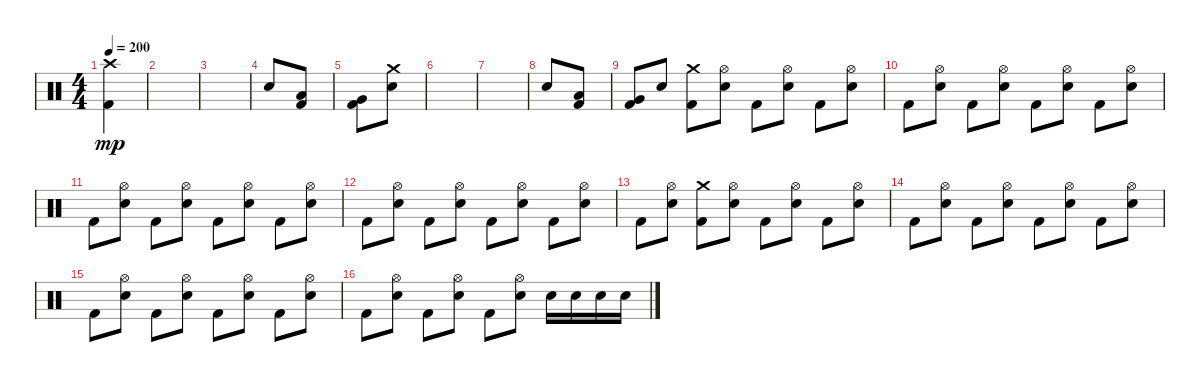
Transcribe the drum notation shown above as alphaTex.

\track "" {instrument percussion}
\staff {score}
\articulation defaults
\ts (4 4)
\tempo 200
\clef neutral
\ks c
("Kick (hit) 2" "Crash high (hit)").4{dy mp} |
|
|
"Electric Snare (hit)".8 ("Kick (hit) 2" "Low Tom (hit)").8 |
("Kick (hit) 2" "Very Low Tom (hit)").8 ("Electric Snare (hit)" "Crash medium (hit)").8 |
|
|
"Electric Snare (hit)".8 ("Kick (hit) 2" "Low Tom (hit)").8 |
("Kick (hit) 2" "Very Low Tom (hit)").8 "Electric Snare (hit)".8 ("Kick (hit) 2" "Crash medium (hit)").8 ("Electric Snare (hit)" "Hi-Hat (open)").8 "Kick (hit) 2".8 ("Electric Snare (hit)" "Hi-Hat (open)").8 "Kick (hit) 2".8 ("Electric Snare (hit)" "Hi-Hat (open)").8 |
"Kick (hit) 2".8 ("Electric Snare (hit)" "Hi-Hat (open)").8 "Kick (hit) 2".8 ("Electric Snare (hit)" "Hi-Hat (open)").8 "Kick (hit) 2".8 ("Electric Snare (hit)" "Hi-Hat (open)").8 "Kick (hit) 2".8 ("Electric Snare (hit)" "Hi-Hat (open)").8 |
"Kick (hit) 2".8 ("Electric Snare (hit)" "Hi-Hat (open)").8 "Kick (hit) 2".8 ("Electric Snare (hit)" "Hi-Hat (open)").8 "Kick (hit) 2".8 ("Electric Snare (hit)" "Hi-Hat (open)").8 "Kick (hit) 2".8 ("Electric Snare (hit)" "Hi-Hat (open)").8 |
"Kick (hit) 2".8 ("Electric Snare (hit)" "Hi-Hat (open)").8 "Kick (hit) 2".8 ("Electric Snare (hit)" "Hi-Hat (open)").8 "Kick (hit) 2".8 ("Electric Snare (hit)" "Hi-Hat (open)").8 "Kick (hit) 2".8 ("Electric Snare (hit)" "Hi-Hat (open)").8 |
"Kick (hit) 2".8 ("Electric Snare (hit)" "Hi-Hat (open)").8 ("Kick (hit) 2" "Crash medium (hit)").8 ("Electric Snare (hit)" "Hi-Hat (open)").8 "Kick (hit) 2".8 ("Electric Snare (hit)" "Hi-Hat (open)").8 "Kick (hit) 2".8 ("Electric Snare (hit)" "Hi-Hat (open)").8 |
"Kick (hit) 2".8 ("Electric Snare (hit)" "Hi-Hat (open)").8 "Kick (hit) 2".8 ("Electric Snare (hit)" "Hi-Hat (open)").8 "Kick (hit) 2".8 ("Electric Snare (hit)" "Hi-Hat (open)").8 "Kick (hit) 2".8 ("Electric Snare (hit)" "Hi-Hat (open)").8 |
"Kick (hit) 2".8 ("Electric Snare (hit)" "Hi-Hat (open)").8 "Kick (hit) 2".8 ("Electric Snare (hit)" "Hi-Hat (open)").8 "Kick (hit) 2".8 ("Electric Snare (hit)" "Hi-Hat (open)").8 "Kick (hit) 2".8 ("Electric Snare (hit)" "Hi-Hat (open)").8 |
"Kick (hit) 2".8 ("Electric Snare (hit)" "Hi-Hat (open)").8 "Kick (hit) 2".8 ("Electric Snare (hit)" "Hi-Hat (open)").8 "Kick (hit) 2".8 ("Electric Snare (hit)" "Hi-Hat (open)").8 "Electric Snare (hit)".16 "Electric Snare (hit)".16 "Electric Snare (hit)".16 "Electric Snare (hit)".16
